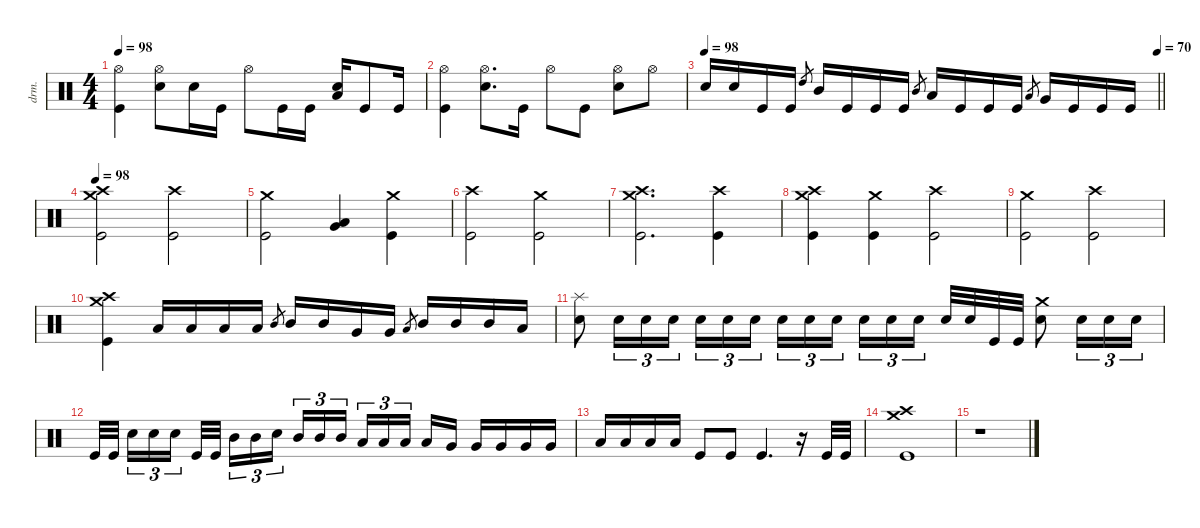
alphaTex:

\defaultSystemsLayout 4
\hideDynamics
\bracketExtendMode nobrackets
\otherSystemsTrackNameOrientation horizontal
\track ("Drum" "drm.") {instrument percussion}
\staff {score}
\articulation defaults
\ts (4 4)
\tempo 98
\clef neutral
\ks c
("Kick (hit)" "Hi-Hat (open)").4{dy f beam Down} ("Snare (hit) 2" "Hi-Hat (open)").8{dy ff beam Down} "Snare (hit) 2".16{beam Down} "Kick (hit)".16{dy f beam Down} "Hi-Hat (open)".8{beam Down} "Kick (hit)".16{beam Down} "Kick (hit)".16{beam Down} ("Snare (hit) 2" "Low Tom (hit)").16{beam Up} "Kick (hit)".8{beam Up} "Kick (hit)".16{beam Up} |
("Kick (hit)" "Hi-Hat (open)").4{beam Down} ("Snare (hit) 2" "Hi-Hat (open)").8{d dy ff beam Down} "Kick (hit)".16{dy f beam Down} "Hi-Hat (open)".8{beam Down} "Kick (hit)".8{beam Down} ("Snare (hit) 2" "Hi-Hat (open)").8{dy ff beam Down} "Hi-Hat (open)".8{dy f beam Down} |
\tempo 98
\tempo (70 1)
\barLineRight lightlight "Snare (hit) 2".16{beam Up} "Snare (hit) 2".16{beam Up} "Kick (hit)".16{beam Up} "Kick (hit)".16{beam Up} "High Tom (hit)".8{gr dy mf beam Up} "Mid Tom (hit)".16{dy f beam Up} "Kick (hit)".16{beam Up} "Kick (hit)".16{beam Up} "Kick (hit)".16{beam Up} "Mid Tom (hit)".8{gr dy mf beam Up} "Low Tom (hit)".16{dy f beam Up} "Kick (hit)".16{beam Up} "Kick (hit)".16{beam Up} "Kick (hit)".16{beam Up} "Low Tom (hit)".8{gr dy mf beam Up} "Very Low Tom (hit)".16{dy f beam Up} "Kick (hit)".16{beam Up} "Kick (hit)".16{beam Up} "Kick (hit)".16{beam Up}
|
\tempo 98
("Kick (hit)" "Crash medium (hit)" "Crash high (hit)").2{beam Down} ("Kick (hit)" "Crash high (hit)").2{beam Down} |
("Kick (hit)" "Crash medium (hit)").2{beam Down} ("Low Tom (hit)" "Very Low Tom (hit)").4{beam Up} ("Kick (hit)" "Crash medium (hit)").4{beam Down} |
("Kick (hit)" "Crash high (hit)").2{beam Down} ("Kick (hit)" "Crash medium (hit)").2{beam Down} |
("Kick (hit)" "Crash medium (hit)" "Crash high (hit)").2{d beam Down} ("Kick (hit)" "Crash high (hit)").4{beam Down} |
("Kick (hit)" "Crash medium (hit)" "Crash high (hit)").4{beam Down} ("Kick (hit)" "Crash medium (hit)").4{beam Down} ("Kick (hit)" "Crash high (hit)").2{beam Down} |
("Kick (hit)" "Crash medium (hit)").2{beam Down} ("Kick (hit)" "Crash high (hit)").2{beam Down} |
("Kick (hit)" "Crash high (hit)" "Crash medium (hit)").4{beam Down} "Low Tom (hit)".16{beam Up} "Low Tom (hit)".16{beam Up} "Low Floor Tom (hit)".16{beam Up} "Low Floor Tom (hit)".16{beam Up} "Mid Tom (hit)".8{gr dy mf beam Up} "Mid Tom (hit)".16{dy f beam Up} "Mid Tom (hit)".16{beam Up} "Very Low Tom (hit)".16{beam Up} "Very Low Tom (hit)".16{beam Up} "Low Tom (hit)".8{gr dy mf beam Up} "Mid Tom (hit)".16{dy f beam Up} "Mid Tom (hit)".16{beam Up} "Mid Tom (hit)".16{beam Up} "Low Floor Tom (hit)".16{beam Up} |
("Snare (hit) 2" "Splash (hit)").8{dy ff beam Down} "Snare (hit) 2".16{tu (3 2) beam Down} "Snare (hit) 2".16{tu (3 2) beam Down} "Snare (hit) 2".16{tu (3 2) dy mp beam Down} "Snare (hit) 2".16{tu (3 2) dy p beam Down} "Snare (hit) 2".16{tu (3 2) dy f beam Down} "Snare (hit) 2".16{tu (3 2) beam Down} "Snare (hit) 2".16{tu (3 2) beam Down} "Snare (hit) 2".16{tu (3 2) dy mp beam Down} "Snare (hit) 2".16{tu (3 2) dy p beam Down} "Snare (hit) 2".16{tu (3 2) dy mp beam Down} "Snare (hit) 2".16{tu (3 2) dy f beam Down} "Snare (hit) 2".16{tu (3 2) dy mf beam Down} "Snare (hit) 2".32{dy mp beam Up} "Snare (hit) 2".32{dy p beam Up} "Kick (hit)".32{dy f beam Up} "Kick (hit)".32{beam Up} ("Snare (hit) 2" "Crash medium (hit)").8{dy ff beam Down} "Snare (hit) 2".16{tu (3 2) dy f beam Down} "Snare (hit) 2".16{tu (3 2) dy mp beam Down} "Snare (hit) 2".16{tu (3 2) dy mf beam Down} |
"Kick (hit)".32{dy f beam Up} "Kick (hit)".32{beam Up} "Snare (hit) 2".16{tu (3 2) beam Down} "Snare (hit) 2".16{tu (3 2) dy p beam Down} "Snare (hit) 2".16{tu (3 2) dy mp beam Down} "Kick (hit)".32{dy f beam Up} "Kick (hit)".32{beam Up} "Mid Tom (hit)".16{tu (3 2) dy mf beam Down} "Mid Tom (hit)".16{tu (3 2) dy f beam Down} "Snare (hit) 2".16{tu (3 2) beam Down} "Mid Tom (hit)".16{tu (3 2) dy mf beam Up} "Mid Tom (hit)".16{tu (3 2) dy f beam Up} "Mid Tom (hit)".16{tu (3 2) beam Up} "Low Tom (hit)".16{tu (3 2) dy mf beam Up} "Low Tom (hit)".16{tu (3 2) dy f beam Up} "Low Tom (hit)".16{tu (3 2) beam Up} "Low Tom (hit)".16{beam Up} "Very Low Tom (hit)".16{beam Up} "Very Low Tom (hit)".16{dy mf beam Up} "Very Low Tom (hit)".16{dy f beam Up} "Very Low Tom (hit)".16{dy mp beam Up} "Very Low Tom (hit)".16{dy mf beam Up} |
"Low Floor Tom (hit)".16{dy f beam Up} "Low Floor Tom (hit)".16{dy mf beam Up} "Low Floor Tom (hit)".16{beam Up} "Low Floor Tom (hit)".16{dy mp beam Up} "Kick (hit)".8{dy f beam Up} "Kick (hit)".8{beam Up} "Kick (hit)".4{d beam Up} r.16{beam Up} "Kick (hit)".32{beam Up} "Kick (hit)".32{beam Up} |
("Kick (hit)" "Crash high (hit)" "Crash medium (hit)").1{beam Down} |
r.1{beam Down}
